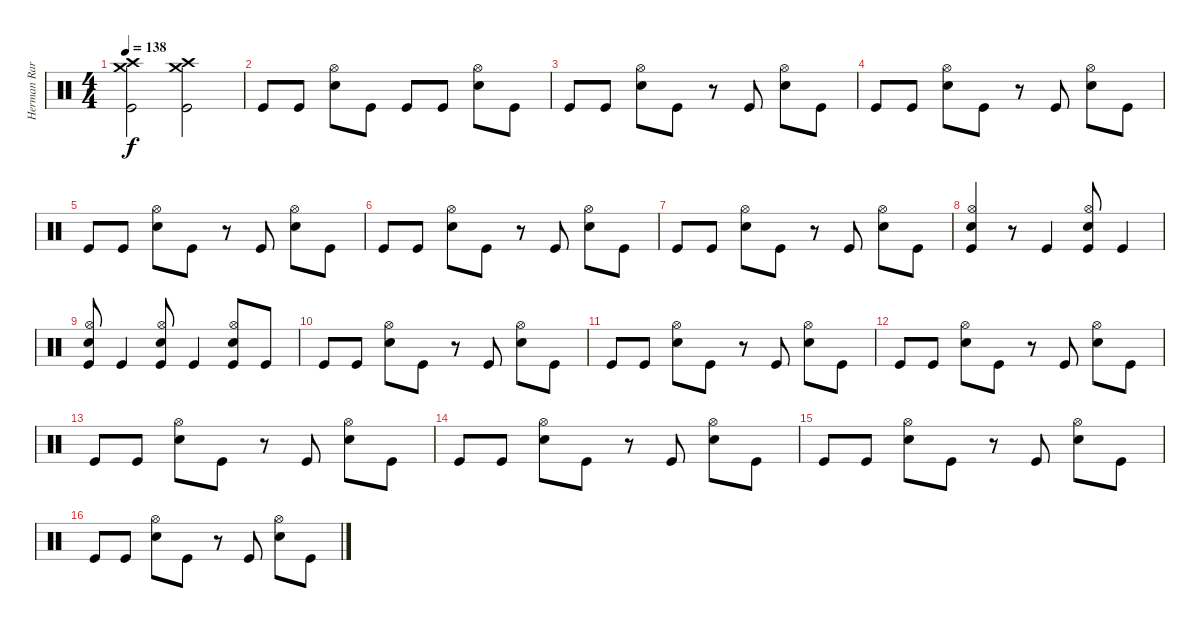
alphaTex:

\track ("Herman Rarebell Drums" "Herman Rar") {instrument percussion}
\staff {score}
\articulation defaults
\ts (4 4)
\tempo 138
\clef neutral
\ks c
("Crash high (hit)" "Crash medium (hit)" "Kick (hit)").2{dy f} ("Crash high (hit)" "Crash medium (hit)" "Kick (hit)").2 |
"Kick (hit)".8 "Kick (hit)".8 ("Hi-Hat (open)" "Snare (hit) 2").8 "Kick (hit)".8 "Kick (hit)".8 "Kick (hit)".8 ("Hi-Hat (open)" "Snare (hit) 2").8 "Kick (hit)".8 |
"Kick (hit)".8 "Kick (hit)".8 ("Hi-Hat (open)" "Snare (hit) 2").8 "Kick (hit)".8 r.8 "Kick (hit)".8 ("Hi-Hat (open)" "Snare (hit) 2").8 "Kick (hit)".8 |
"Kick (hit)".8 "Kick (hit)".8 ("Hi-Hat (open)" "Snare (hit) 2").8 "Kick (hit)".8 r.8 "Kick (hit)".8 ("Hi-Hat (open)" "Snare (hit) 2").8 "Kick (hit)".8 |
"Kick (hit)".8 "Kick (hit)".8 ("Hi-Hat (open)" "Snare (hit) 2").8 "Kick (hit)".8 r.8 "Kick (hit)".8 ("Hi-Hat (open)" "Snare (hit) 2").8 "Kick (hit)".8 |
"Kick (hit)".8 "Kick (hit)".8 ("Hi-Hat (open)" "Snare (hit) 2").8 "Kick (hit)".8 r.8 "Kick (hit)".8 ("Hi-Hat (open)" "Snare (hit) 2").8 "Kick (hit)".8 |
"Kick (hit)".8 "Kick (hit)".8 ("Hi-Hat (open)" "Snare (hit) 2").8 "Kick (hit)".8 r.8 "Kick (hit)".8 ("Hi-Hat (open)" "Snare (hit) 2").8 "Kick (hit)".8 |
("Hi-Hat (open)" "Snare (hit) 2" "Kick (hit)").4 r.8 "Kick (hit)".4 ("Hi-Hat (open)" "Snare (hit) 2" "Kick (hit)").8 "Kick (hit)".4 |
("Hi-Hat (open)" "Snare (hit) 2" "Kick (hit)").8 "Kick (hit)".4 ("Hi-Hat (open)" "Snare (hit) 2" "Kick (hit)").8 "Kick (hit)".4 ("Hi-Hat (open)" "Snare (hit) 2" "Kick (hit)").8 "Kick (hit)".8 |
"Kick (hit)".8 "Kick (hit)".8 ("Hi-Hat (open)" "Snare (hit) 2").8 "Kick (hit)".8 r.8 "Kick (hit)".8 ("Hi-Hat (open)" "Snare (hit) 2").8 "Kick (hit)".8 |
"Kick (hit)".8 "Kick (hit)".8 ("Hi-Hat (open)" "Snare (hit) 2").8 "Kick (hit)".8 r.8 "Kick (hit)".8 ("Hi-Hat (open)" "Snare (hit) 2").8 "Kick (hit)".8 |
"Kick (hit)".8 "Kick (hit)".8 ("Hi-Hat (open)" "Snare (hit) 2").8 "Kick (hit)".8 r.8 "Kick (hit)".8 ("Hi-Hat (open)" "Snare (hit) 2").8 "Kick (hit)".8 |
"Kick (hit)".8 "Kick (hit)".8 ("Hi-Hat (open)" "Snare (hit) 2").8 "Kick (hit)".8 r.8 "Kick (hit)".8 ("Hi-Hat (open)" "Snare (hit) 2").8 "Kick (hit)".8 |
"Kick (hit)".8 "Kick (hit)".8 ("Hi-Hat (open)" "Snare (hit) 2").8 "Kick (hit)".8 r.8 "Kick (hit)".8 ("Hi-Hat (open)" "Snare (hit) 2").8 "Kick (hit)".8 |
"Kick (hit)".8 "Kick (hit)".8 ("Hi-Hat (open)" "Snare (hit) 2").8 "Kick (hit)".8 r.8 "Kick (hit)".8 ("Hi-Hat (open)" "Snare (hit) 2").8 "Kick (hit)".8 |
"Kick (hit)".8 "Kick (hit)".8 ("Hi-Hat (open)" "Snare (hit) 2").8 "Kick (hit)".8 r.8 "Kick (hit)".8 ("Hi-Hat (open)" "Snare (hit) 2").8 "Kick (hit)".8
